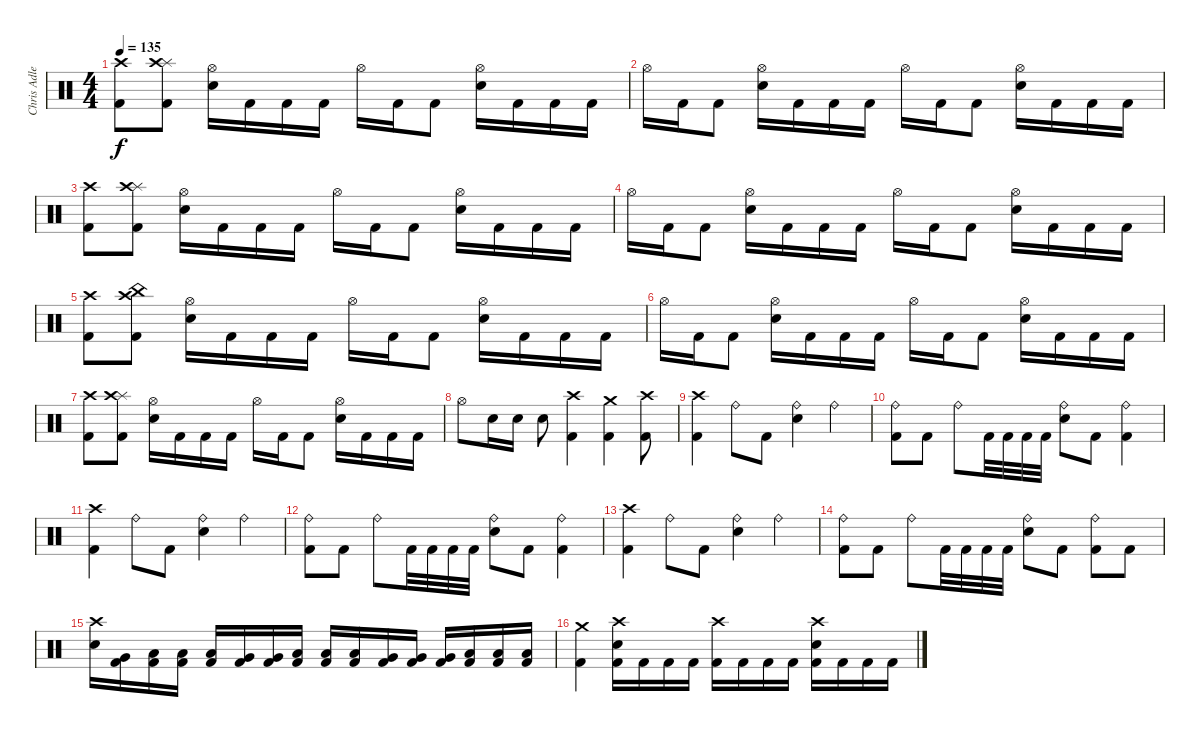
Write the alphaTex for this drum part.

\track ("Chris Adler Drums)" "Chris Adle") {instrument percussion}
\staff {score}
\articulation defaults
\ts (4 4)
\tempo 135
\clef neutral
\ks c
("Crash high (hit)" "Kick (hit) 2").8{dy f} ("Splash (hit)" "Crash high (hit)" "Kick (hit) 2").8 ("Hi-Hat (open)" "Snare (hit) 2").16 "Kick (hit) 2".16 "Kick (hit) 2".16 "Kick (hit) 2".16 "Hi-Hat (open)".16 "Kick (hit) 2".16 "Kick (hit) 2".8 ("Hi-Hat (open)" "Snare (hit) 2").16 "Kick (hit) 2".16 "Kick (hit) 2".16 "Kick (hit) 2".16 |
"Hi-Hat (open)".16 "Kick (hit) 2".16 "Kick (hit) 2".8 ("Hi-Hat (open)" "Snare (hit) 2").16 "Kick (hit) 2".16 "Kick (hit) 2".16 "Kick (hit) 2".16 "Hi-Hat (open)".16 "Kick (hit) 2".16 "Kick (hit) 2".8 ("Hi-Hat (open)" "Snare (hit) 2").16 "Kick (hit) 2".16 "Kick (hit) 2".16 "Kick (hit) 2".16 |
("Crash high (hit)" "Kick (hit) 2").8 ("Splash (hit)" "Crash high (hit)" "Kick (hit) 2").8 ("Hi-Hat (open)" "Snare (hit) 2").16 "Kick (hit) 2".16 "Kick (hit) 2".16 "Kick (hit) 2".16 "Hi-Hat (open)".16 "Kick (hit) 2".16 "Kick (hit) 2".8 ("Hi-Hat (open)" "Snare (hit) 2").16 "Kick (hit) 2".16 "Kick (hit) 2".16 "Kick (hit) 2".16 |
"Hi-Hat (open)".16 "Kick (hit) 2".16 "Kick (hit) 2".8 ("Hi-Hat (open)" "Snare (hit) 2").16 "Kick (hit) 2".16 "Kick (hit) 2".16 "Kick (hit) 2".16 "Hi-Hat (open)".16 "Kick (hit) 2".16 "Kick (hit) 2".8 ("Hi-Hat (open)" "Snare (hit) 2").16 "Kick (hit) 2".16 "Kick (hit) 2".16 "Kick (hit) 2".16 |
("Crash high (hit)" "Kick (hit) 2").8 ("China (hit)" "Crash high (hit)" "Kick (hit) 2").8 ("Hi-Hat (open)" "Snare (hit) 2").16 "Kick (hit) 2".16 "Kick (hit) 2".16 "Kick (hit) 2".16 "Hi-Hat (open)".16 "Kick (hit) 2".16 "Kick (hit) 2".8 ("Hi-Hat (open)" "Snare (hit) 2").16 "Kick (hit) 2".16 "Kick (hit) 2".16 "Kick (hit) 2".16 |
"Hi-Hat (open)".16 "Kick (hit) 2".16 "Kick (hit) 2".8 ("Hi-Hat (open)" "Snare (hit) 2").16 "Kick (hit) 2".16 "Kick (hit) 2".16 "Kick (hit) 2".16 "Hi-Hat (open)".16 "Kick (hit) 2".16 "Kick (hit) 2".8 ("Hi-Hat (open)" "Snare (hit) 2").16 "Kick (hit) 2".16 "Kick (hit) 2".16 "Kick (hit) 2".16 |
("Crash high (hit)" "Kick (hit) 2").8 ("Splash (hit)" "Crash high (hit)" "Kick (hit) 2").8 ("Hi-Hat (open)" "Snare (hit) 2").16 "Kick (hit) 2".16 "Kick (hit) 2".16 "Kick (hit) 2".16 "Hi-Hat (open)".16 "Kick (hit) 2".16 "Kick (hit) 2".8 ("Hi-Hat (open)" "Snare (hit) 2").16 "Kick (hit) 2".16 "Kick (hit) 2".16 "Kick (hit) 2".16 |
"Hi-Hat (open)".8 "Snare (hit) 2".16 "Snare (hit) 2".16 "Snare (hit) 2".8 ("Crash high (hit)" "Kick (hit) 2").4 ("Crash medium (hit)" "Kick (hit) 2").4 ("Crash high (hit)" "Kick (hit) 2").8 |
("Kick (hit) 2" "Crash high (hit)").4 "Ride (bell)".8 "Kick (hit) 2".8 ("Ride (bell)" "Snare (hit) 2").4 "Ride (bell)".4 |
("Ride (bell)" "Kick (hit) 2").8 "Kick (hit) 2".8 "Ride (bell)".8 "Kick (hit) 2".32 "Kick (hit) 2".32 "Kick (hit) 2".32 "Kick (hit) 2".32 ("Ride (bell)" "Snare (hit) 2").8 "Kick (hit) 2".8 ("Ride (bell)" "Kick (hit) 2").4 |
("Kick (hit) 2" "Crash high (hit)").4 "Ride (bell)".8 "Kick (hit) 2".8 ("Ride (bell)" "Snare (hit) 2").4 "Ride (bell)".4 |
("Ride (bell)" "Kick (hit) 2").8 "Kick (hit) 2".8 "Ride (bell)".8 "Kick (hit) 2".32 "Kick (hit) 2".32 "Kick (hit) 2".32 "Kick (hit) 2".32 ("Ride (bell)" "Snare (hit) 2").8 "Kick (hit) 2".8 ("Ride (bell)" "Kick (hit) 2").4 |
("Kick (hit) 2" "Crash high (hit)").4 "Ride (bell)".8 "Kick (hit) 2".8 ("Ride (bell)" "Snare (hit) 2").4 "Ride (bell)".4 |
("Ride (bell)" "Kick (hit) 2").8 "Kick (hit) 2".8 "Ride (bell)".8 "Kick (hit) 2".32 "Kick (hit) 2".32 "Kick (hit) 2".32 "Kick (hit) 2".32 ("Ride (bell)" "Snare (hit) 2").8 "Kick (hit) 2".8 ("Ride (bell)" "Kick (hit) 2").8 "Kick (hit) 2".8 |
("Crash high (hit)" "Snare (hit) 2").16 ("Kick (hit) 2" "Very Low Tom (hit)").16 ("Kick (hit) 2" "Low Floor Tom (hit)").16 ("Kick (hit) 2" "Low Floor Tom (hit)").16 ("Kick (hit) 2" "Low Floor Tom (hit)").16 ("Kick (hit) 2" "Very Low Tom (hit)").16 ("Kick (hit) 2" "Very Low Tom (hit)").16 ("Kick (hit) 2" "Low Floor Tom (hit)").16 ("Kick (hit) 2" "Low Floor Tom (hit)").16 ("Kick (hit) 2" "Low Floor Tom (hit)").16 ("Kick (hit) 2" "Very Low Tom (hit)").16 ("Kick (hit) 2" "Very Low Tom (hit)").16 ("Kick (hit) 2" "Very Low Tom (hit)").16 ("Kick (hit) 2" "Low Floor Tom (hit)").16 ("Kick (hit) 2" "Low Floor Tom (hit)").16 ("Kick (hit) 2" "Low Floor Tom (hit)").16 |
("Crash medium (hit)" "Kick (hit) 2").4 ("Crash high (hit)" "Kick (hit) 2" "Snare (hit) 2").16 "Kick (hit) 2".16 "Kick (hit) 2".16 "Kick (hit) 2".16 ("Crash high (hit)" "Kick (hit) 2").16 "Kick (hit) 2".16 "Kick (hit) 2".16 "Kick (hit) 2".16 ("Crash high (hit)" "Snare (hit) 2" "Kick (hit) 2").16 "Kick (hit) 2".16 "Kick (hit) 2".16 "Kick (hit) 2".16
